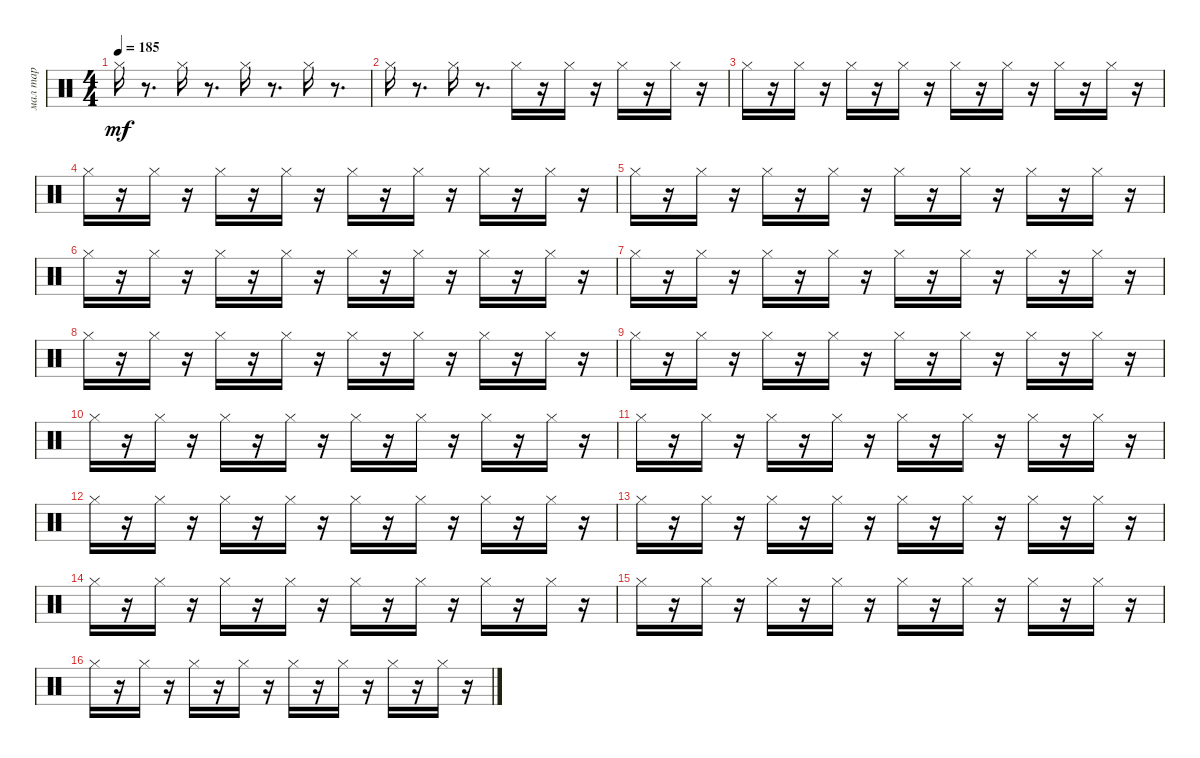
\track ("мал тар" "мал тар") {instrument percussion}
\staff {score}
\articulation defaults
\ts (4 4)
\tempo 185
\clef neutral
\ks c "Hi-Hat (closed)".16{dy mf}
r.8{d} "Hi-Hat (closed)".16 r.8{d} "Hi-Hat (closed)".16 r.8{d} "Hi-Hat (closed)".16 r.8{d} |
"Hi-Hat (closed)".16 r.8{d} "Hi-Hat (closed)".16 r.8{d} "Hi-Hat (closed)".16 r.16 "Hi-Hat (closed)".16 r.16 "Hi-Hat (closed)".16 r.16 "Hi-Hat (closed)".16 r.16 |
"Hi-Hat (closed)".16 r.16 "Hi-Hat (closed)".16 r.16 "Hi-Hat (closed)".16 r.16 "Hi-Hat (closed)".16 r.16 "Hi-Hat (closed)".16 r.16 "Hi-Hat (closed)".16 r.16 "Hi-Hat (closed)".16 r.16 "Hi-Hat (closed)".16 r.16 |
"Hi-Hat (closed)".16 r.16 "Hi-Hat (closed)".16 r.16 "Hi-Hat (closed)".16 r.16 "Hi-Hat (closed)".16 r.16 "Hi-Hat (closed)".16 r.16 "Hi-Hat (closed)".16 r.16 "Hi-Hat (closed)".16 r.16 "Hi-Hat (closed)".16 r.16 |
"Hi-Hat (closed)".16 r.16 "Hi-Hat (closed)".16 r.16 "Hi-Hat (closed)".16 r.16 "Hi-Hat (closed)".16 r.16 "Hi-Hat (closed)".16 r.16 "Hi-Hat (closed)".16 r.16 "Hi-Hat (closed)".16 r.16 "Hi-Hat (closed)".16 r.16 |
"Hi-Hat (closed)".16 r.16 "Hi-Hat (closed)".16 r.16 "Hi-Hat (closed)".16 r.16 "Hi-Hat (closed)".16 r.16 "Hi-Hat (closed)".16 r.16 "Hi-Hat (closed)".16 r.16 "Hi-Hat (closed)".16 r.16 "Hi-Hat (closed)".16 r.16 |
"Hi-Hat (closed)".16 r.16 "Hi-Hat (closed)".16 r.16 "Hi-Hat (closed)".16 r.16 "Hi-Hat (closed)".16 r.16 "Hi-Hat (closed)".16 r.16 "Hi-Hat (closed)".16 r.16 "Hi-Hat (closed)".16 r.16 "Hi-Hat (closed)".16 r.16 |
"Hi-Hat (closed)".16 r.16 "Hi-Hat (closed)".16 r.16 "Hi-Hat (closed)".16 r.16 "Hi-Hat (closed)".16 r.16 "Hi-Hat (closed)".16 r.16 "Hi-Hat (closed)".16 r.16 "Hi-Hat (closed)".16 r.16 "Hi-Hat (closed)".16 r.16 |
"Hi-Hat (closed)".16 r.16 "Hi-Hat (closed)".16 r.16 "Hi-Hat (closed)".16 r.16 "Hi-Hat (closed)".16 r.16 "Hi-Hat (closed)".16 r.16 "Hi-Hat (closed)".16 r.16 "Hi-Hat (closed)".16 r.16 "Hi-Hat (closed)".16 r.16 |
"Hi-Hat (closed)".16 r.16 "Hi-Hat (closed)".16 r.16 "Hi-Hat (closed)".16 r.16 "Hi-Hat (closed)".16 r.16 "Hi-Hat (closed)".16 r.16 "Hi-Hat (closed)".16 r.16 "Hi-Hat (closed)".16 r.16 "Hi-Hat (closed)".16 r.16 |
"Hi-Hat (closed)".16 r.16 "Hi-Hat (closed)".16 r.16 "Hi-Hat (closed)".16 r.16 "Hi-Hat (closed)".16 r.16 "Hi-Hat (closed)".16 r.16 "Hi-Hat (closed)".16 r.16 "Hi-Hat (closed)".16 r.16 "Hi-Hat (closed)".16 r.16 |
"Hi-Hat (closed)".16 r.16 "Hi-Hat (closed)".16 r.16 "Hi-Hat (closed)".16 r.16 "Hi-Hat (closed)".16 r.16 "Hi-Hat (closed)".16 r.16 "Hi-Hat (closed)".16 r.16 "Hi-Hat (closed)".16 r.16 "Hi-Hat (closed)".16 r.16 |
"Hi-Hat (closed)".16 r.16 "Hi-Hat (closed)".16 r.16 "Hi-Hat (closed)".16 r.16 "Hi-Hat (closed)".16 r.16 "Hi-Hat (closed)".16 r.16 "Hi-Hat (closed)".16 r.16 "Hi-Hat (closed)".16 r.16 "Hi-Hat (closed)".16 r.16 |
"Hi-Hat (closed)".16 r.16 "Hi-Hat (closed)".16 r.16 "Hi-Hat (closed)".16 r.16 "Hi-Hat (closed)".16 r.16 "Hi-Hat (closed)".16 r.16 "Hi-Hat (closed)".16 r.16 "Hi-Hat (closed)".16 r.16 "Hi-Hat (closed)".16 r.16 |
"Hi-Hat (closed)".16 r.16 "Hi-Hat (closed)".16 r.16 "Hi-Hat (closed)".16 r.16 "Hi-Hat (closed)".16 r.16 "Hi-Hat (closed)".16 r.16 "Hi-Hat (closed)".16 r.16 "Hi-Hat (closed)".16 r.16 "Hi-Hat (closed)".16 r.16 |
"Hi-Hat (closed)".16 r.16 "Hi-Hat (closed)".16 r.16 "Hi-Hat (closed)".16 r.16 "Hi-Hat (closed)".16 r.16 "Hi-Hat (closed)".16 r.16 "Hi-Hat (closed)".16 r.16 "Hi-Hat (closed)".16 r.16 "Hi-Hat (closed)".16 r.16
